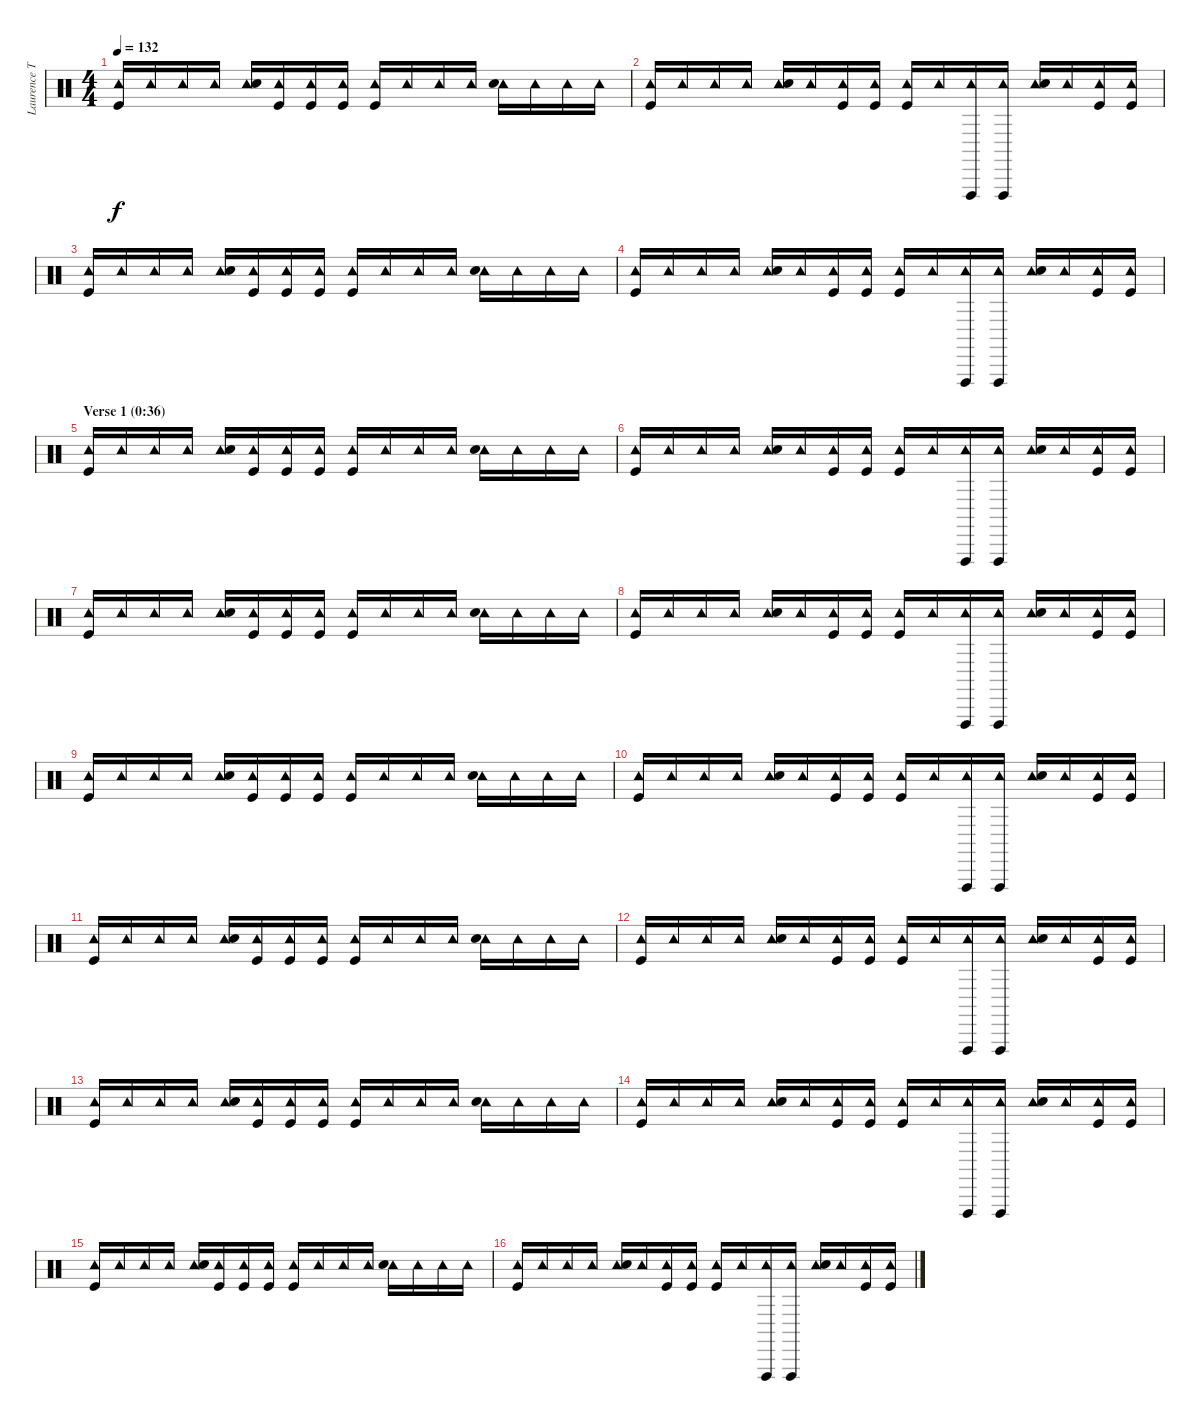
\track ("Laurence Tolhurst (drums)" "Laurence T") {instrument percussion}
\staff {score}
\articulation defaults
\ts (4 4)
\tempo 132
\clef neutral
\ks c
("Tambourine (hit)" "Kick (hit)").16{dy f} "Tambourine (hit)".16 "Tambourine (hit)".16 "Tambourine (hit)".16 ("Tambourine (hit)" "Snare (hit) 2").16 ("Tambourine (hit)" "Kick (hit)").16 ("Tambourine (hit)" "Kick (hit)").16 ("Tambourine (hit)" "Kick (hit)").16 ("Tambourine (hit)" "Kick (hit)").16 "Tambourine (hit)".16 "Tambourine (hit)".16 "Tambourine (hit)".16 ("Tambourine (hit)" "Snare (hit) 2").16 "Tambourine (hit)".16 "Tambourine (hit)".16 "Tambourine (hit)".16 |
("Tambourine (hit)" "Kick (hit)").16 "Tambourine (hit)".16 "Tambourine (hit)".16 "Tambourine (hit)".16 ("Tambourine (hit)" "Snare (hit) 2").16 "Tambourine (hit)".16 ("Tambourine (hit)" "Kick (hit)").16 ("Tambourine (hit)" "Kick (hit)").16 ("Tambourine (hit)" "Kick (hit)").16 "Tambourine (hit)".16 ("Tambourine (hit)" "Vibraslap (hit)").16 ("Tambourine (hit)" "Vibraslap (hit)").16 ("Tambourine (hit)" "Snare (hit) 2").16 "Tambourine (hit)".16 ("Tambourine (hit)" "Kick (hit)").16 ("Tambourine (hit)" "Kick (hit)").16 |
("Tambourine (hit)" "Kick (hit)").16 "Tambourine (hit)".16 "Tambourine (hit)".16 "Tambourine (hit)".16 ("Tambourine (hit)" "Snare (hit) 2").16 ("Tambourine (hit)" "Kick (hit)").16 ("Tambourine (hit)" "Kick (hit)").16 ("Tambourine (hit)" "Kick (hit)").16 ("Tambourine (hit)" "Kick (hit)").16 "Tambourine (hit)".16 "Tambourine (hit)".16 "Tambourine (hit)".16 ("Tambourine (hit)" "Snare (hit) 2").16 "Tambourine (hit)".16 "Tambourine (hit)".16 "Tambourine (hit)".16 |
("Tambourine (hit)" "Kick (hit)").16 "Tambourine (hit)".16 "Tambourine (hit)".16 "Tambourine (hit)".16 ("Tambourine (hit)" "Snare (hit) 2").16 "Tambourine (hit)".16 ("Tambourine (hit)" "Kick (hit)").16 ("Tambourine (hit)" "Kick (hit)").16 ("Tambourine (hit)" "Kick (hit)").16 "Tambourine (hit)".16 ("Tambourine (hit)" "Vibraslap (hit)").16 ("Tambourine (hit)" "Vibraslap (hit)").16 ("Tambourine (hit)" "Snare (hit) 2").16 "Tambourine (hit)".16 ("Tambourine (hit)" "Kick (hit)").16 ("Tambourine (hit)" "Kick (hit)").16 |
\section ("" "Verse 1 (0:36)")
("Tambourine (hit)" "Kick (hit)").16 "Tambourine (hit)".16 "Tambourine (hit)".16 "Tambourine (hit)".16 ("Tambourine (hit)" "Snare (hit) 2").16 ("Tambourine (hit)" "Kick (hit)").16 ("Tambourine (hit)" "Kick (hit)").16 ("Tambourine (hit)" "Kick (hit)").16 ("Tambourine (hit)" "Kick (hit)").16 "Tambourine (hit)".16 "Tambourine (hit)".16 "Tambourine (hit)".16 ("Tambourine (hit)" "Snare (hit) 2").16 "Tambourine (hit)".16 "Tambourine (hit)".16 "Tambourine (hit)".16 |
("Tambourine (hit)" "Kick (hit)").16 "Tambourine (hit)".16 "Tambourine (hit)".16 "Tambourine (hit)".16 ("Tambourine (hit)" "Snare (hit) 2").16 "Tambourine (hit)".16 ("Tambourine (hit)" "Kick (hit)").16 ("Tambourine (hit)" "Kick (hit)").16 ("Tambourine (hit)" "Kick (hit)").16 "Tambourine (hit)".16 ("Tambourine (hit)" "Vibraslap (hit)").16 ("Tambourine (hit)" "Vibraslap (hit)").16 ("Tambourine (hit)" "Snare (hit) 2").16 "Tambourine (hit)".16 ("Tambourine (hit)" "Kick (hit)").16 ("Tambourine (hit)" "Kick (hit)").16 |
("Tambourine (hit)" "Kick (hit)").16 "Tambourine (hit)".16 "Tambourine (hit)".16 "Tambourine (hit)".16 ("Tambourine (hit)" "Snare (hit) 2").16 ("Tambourine (hit)" "Kick (hit)").16 ("Tambourine (hit)" "Kick (hit)").16 ("Tambourine (hit)" "Kick (hit)").16 ("Tambourine (hit)" "Kick (hit)").16 "Tambourine (hit)".16 "Tambourine (hit)".16 "Tambourine (hit)".16 ("Tambourine (hit)" "Snare (hit) 2").16 "Tambourine (hit)".16 "Tambourine (hit)".16 "Tambourine (hit)".16 |
("Tambourine (hit)" "Kick (hit)").16 "Tambourine (hit)".16 "Tambourine (hit)".16 "Tambourine (hit)".16 ("Tambourine (hit)" "Snare (hit) 2").16 "Tambourine (hit)".16 ("Tambourine (hit)" "Kick (hit)").16 ("Tambourine (hit)" "Kick (hit)").16 ("Tambourine (hit)" "Kick (hit)").16 "Tambourine (hit)".16 ("Tambourine (hit)" "Vibraslap (hit)").16 ("Tambourine (hit)" "Vibraslap (hit)").16 ("Tambourine (hit)" "Snare (hit) 2").16 "Tambourine (hit)".16 ("Tambourine (hit)" "Kick (hit)").16 ("Tambourine (hit)" "Kick (hit)").16 |
("Tambourine (hit)" "Kick (hit)").16 "Tambourine (hit)".16 "Tambourine (hit)".16 "Tambourine (hit)".16 ("Tambourine (hit)" "Snare (hit) 2").16 ("Tambourine (hit)" "Kick (hit)").16 ("Tambourine (hit)" "Kick (hit)").16 ("Tambourine (hit)" "Kick (hit)").16 ("Tambourine (hit)" "Kick (hit)").16 "Tambourine (hit)".16 "Tambourine (hit)".16 "Tambourine (hit)".16 ("Tambourine (hit)" "Snare (hit) 2").16 "Tambourine (hit)".16 "Tambourine (hit)".16 "Tambourine (hit)".16 |
("Tambourine (hit)" "Kick (hit)").16 "Tambourine (hit)".16 "Tambourine (hit)".16 "Tambourine (hit)".16 ("Tambourine (hit)" "Snare (hit) 2").16 "Tambourine (hit)".16 ("Tambourine (hit)" "Kick (hit)").16 ("Tambourine (hit)" "Kick (hit)").16 ("Tambourine (hit)" "Kick (hit)").16 "Tambourine (hit)".16 ("Tambourine (hit)" "Vibraslap (hit)").16 ("Tambourine (hit)" "Vibraslap (hit)").16 ("Tambourine (hit)" "Snare (hit) 2").16 "Tambourine (hit)".16 ("Tambourine (hit)" "Kick (hit)").16 ("Tambourine (hit)" "Kick (hit)").16 |
("Tambourine (hit)" "Kick (hit)").16 "Tambourine (hit)".16 "Tambourine (hit)".16 "Tambourine (hit)".16 ("Tambourine (hit)" "Snare (hit) 2").16 ("Tambourine (hit)" "Kick (hit)").16 ("Tambourine (hit)" "Kick (hit)").16 ("Tambourine (hit)" "Kick (hit)").16 ("Tambourine (hit)" "Kick (hit)").16 "Tambourine (hit)".16 "Tambourine (hit)".16 "Tambourine (hit)".16 ("Tambourine (hit)" "Snare (hit) 2").16 "Tambourine (hit)".16 "Tambourine (hit)".16 "Tambourine (hit)".16 |
("Tambourine (hit)" "Kick (hit)").16 "Tambourine (hit)".16 "Tambourine (hit)".16 "Tambourine (hit)".16 ("Tambourine (hit)" "Snare (hit) 2").16 "Tambourine (hit)".16 ("Tambourine (hit)" "Kick (hit)").16 ("Tambourine (hit)" "Kick (hit)").16 ("Tambourine (hit)" "Kick (hit)").16 "Tambourine (hit)".16 ("Tambourine (hit)" "Vibraslap (hit)").16 ("Tambourine (hit)" "Vibraslap (hit)").16 ("Tambourine (hit)" "Snare (hit) 2").16 "Tambourine (hit)".16 ("Tambourine (hit)" "Kick (hit)").16 ("Tambourine (hit)" "Kick (hit)").16 |
("Tambourine (hit)" "Kick (hit)").16 "Tambourine (hit)".16 "Tambourine (hit)".16 "Tambourine (hit)".16 ("Tambourine (hit)" "Snare (hit) 2").16 ("Tambourine (hit)" "Kick (hit)").16 ("Tambourine (hit)" "Kick (hit)").16 ("Tambourine (hit)" "Kick (hit)").16 ("Tambourine (hit)" "Kick (hit)").16 "Tambourine (hit)".16 "Tambourine (hit)".16 "Tambourine (hit)".16 ("Tambourine (hit)" "Snare (hit) 2").16 "Tambourine (hit)".16 "Tambourine (hit)".16 "Tambourine (hit)".16 |
("Tambourine (hit)" "Kick (hit)").16 "Tambourine (hit)".16 "Tambourine (hit)".16 "Tambourine (hit)".16 ("Tambourine (hit)" "Snare (hit) 2").16 "Tambourine (hit)".16 ("Tambourine (hit)" "Kick (hit)").16 ("Tambourine (hit)" "Kick (hit)").16 ("Tambourine (hit)" "Kick (hit)").16 "Tambourine (hit)".16 ("Tambourine (hit)" "Vibraslap (hit)").16 ("Tambourine (hit)" "Vibraslap (hit)").16 ("Tambourine (hit)" "Snare (hit) 2").16 "Tambourine (hit)".16 ("Tambourine (hit)" "Kick (hit)").16 ("Tambourine (hit)" "Kick (hit)").16 |
("Tambourine (hit)" "Kick (hit)").16 "Tambourine (hit)".16 "Tambourine (hit)".16 "Tambourine (hit)".16 ("Tambourine (hit)" "Snare (hit) 2").16 ("Tambourine (hit)" "Kick (hit)").16 ("Tambourine (hit)" "Kick (hit)").16 ("Tambourine (hit)" "Kick (hit)").16 ("Tambourine (hit)" "Kick (hit)").16 "Tambourine (hit)".16 "Tambourine (hit)".16 "Tambourine (hit)".16 ("Tambourine (hit)" "Snare (hit) 2").16 "Tambourine (hit)".16 "Tambourine (hit)".16 "Tambourine (hit)".16 |
("Tambourine (hit)" "Kick (hit)").16 "Tambourine (hit)".16 "Tambourine (hit)".16 "Tambourine (hit)".16 ("Tambourine (hit)" "Snare (hit) 2").16 "Tambourine (hit)".16 ("Tambourine (hit)" "Kick (hit)").16 ("Tambourine (hit)" "Kick (hit)").16 ("Tambourine (hit)" "Kick (hit)").16 "Tambourine (hit)".16 ("Tambourine (hit)" "Vibraslap (hit)").16 ("Tambourine (hit)" "Vibraslap (hit)").16 ("Tambourine (hit)" "Snare (hit) 2").16 "Tambourine (hit)".16 ("Tambourine (hit)" "Kick (hit)").16 ("Tambourine (hit)" "Kick (hit)").16
